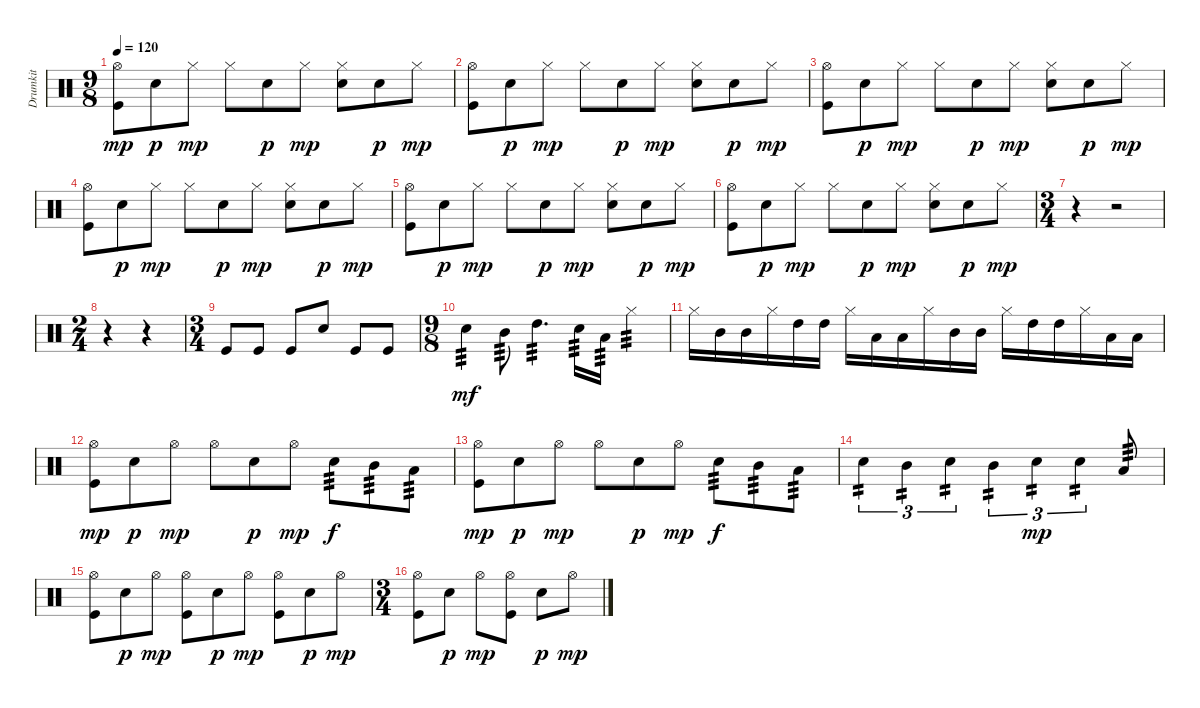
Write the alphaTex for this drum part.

\track ("Drumkit" "Drumkit") {instrument percussion}
\staff {score}
\articulation defaults
\ts (9 8)
\tempo 120
\clef neutral
\ks c
("Hi-Hat (open)" "Kick (hit)").8{dy mp} "Snare (hit) 2".8{dy p} "Hi-Hat (closed)".8{dy mp} "Hi-Hat (closed)".8 "Snare (hit) 2".8{dy p} "Hi-Hat (closed)".8{dy mp} ("Hi-Hat (closed)" "Snare (hit) 2").8 "Snare (hit) 2".8{dy p} "Hi-Hat (closed)".8{dy mp} |
("Hi-Hat (open)" "Kick (hit)").8 "Snare (hit) 2".8{dy p} "Hi-Hat (closed)".8{dy mp} "Hi-Hat (closed)".8 "Snare (hit) 2".8{dy p} "Hi-Hat (closed)".8{dy mp} ("Hi-Hat (closed)" "Snare (hit) 2").8 "Snare (hit) 2".8{dy p} "Hi-Hat (closed)".8{dy mp} |
("Hi-Hat (open)" "Kick (hit)").8 "Snare (hit) 2".8{dy p} "Hi-Hat (closed)".8{dy mp} "Hi-Hat (closed)".8 "Snare (hit) 2".8{dy p} "Hi-Hat (closed)".8{dy mp} ("Hi-Hat (closed)" "Snare (hit) 2").8 "Snare (hit) 2".8{dy p} "Hi-Hat (closed)".8{dy mp} |
("Hi-Hat (open)" "Kick (hit)").8 "Snare (hit) 2".8{dy p} "Hi-Hat (closed)".8{dy mp} "Hi-Hat (closed)".8 "Snare (hit) 2".8{dy p} "Hi-Hat (closed)".8{dy mp} ("Hi-Hat (closed)" "Snare (hit) 2").8 "Snare (hit) 2".8{dy p} "Hi-Hat (closed)".8{dy mp} |
("Hi-Hat (open)" "Kick (hit)").8 "Snare (hit) 2".8{dy p} "Hi-Hat (closed)".8{dy mp} "Hi-Hat (closed)".8 "Snare (hit) 2".8{dy p} "Hi-Hat (closed)".8{dy mp} ("Hi-Hat (closed)" "Snare (hit) 2").8 "Snare (hit) 2".8{dy p} "Hi-Hat (closed)".8{dy mp} |
("Hi-Hat (open)" "Kick (hit)").8 "Snare (hit) 2".8{dy p} "Hi-Hat (closed)".8{dy mp} "Hi-Hat (closed)".8 "Snare (hit) 2".8{dy p} "Hi-Hat (closed)".8{dy mp} ("Hi-Hat (closed)" "Snare (hit) 2").8 "Snare (hit) 2".8{dy p} "Hi-Hat (closed)".8{dy mp} |
\ts (3 4)
r.4 r.2 |
\ts (2 4)
r.4 r.4 |
\ts (3 4)
"Kick (hit)".8 "Kick (hit)".8 "Kick (hit)".8 "Snare (hit) 2".8 "Kick (hit)".8 "Kick (hit)".8 |
\ts (9 8)
"Snare (hit) 2".4{tp 3 dy mf} "Mid Tom (hit)".8{tp 3} "High Tom (hit)".4{d tp 3} "Snare (hit) 2".16{tp 3} "Low Tom (hit)".16{tp 3} "Hi-Hat (closed)".4{tp 3} |
"Hi-Hat (closed)".16 "Mid Tom (hit)".16 "Mid Tom (hit)".16 "Hi-Hat (closed)".16 "High Tom (hit)".16 "High Tom (hit)".16 "Hi-Hat (closed)".16 "Low Tom (hit)".16 "Low Tom (hit)".16 "Hi-Hat (closed)".16 "Mid Tom (hit)".16 "Mid Tom (hit)".16 "Hi-Hat (closed)".16 "High Tom (hit)".16 "High Tom (hit)".16 "Hi-Hat (closed)".16 "Low Tom (hit)".16 "Low Tom (hit)".16 |
("Hi-Hat (open)" "Kick (hit)").8{dy mp} "Snare (hit) 2".8{dy p} "Hi-Hat (open)".8{dy mp} "Hi-Hat (open)".8 "Snare (hit) 2".8{dy p} "Hi-Hat (open)".8{dy mp} "Snare (hit) 2".8{tp 3 dy f} "Mid Tom (hit)".8{tp 3} "Low Tom (hit)".8{tp 3} |
("Hi-Hat (open)" "Kick (hit)").8{dy mp} "Snare (hit) 2".8{dy p} "Hi-Hat (open)".8{dy mp} "Hi-Hat (open)".8 "Snare (hit) 2".8{dy p} "Hi-Hat (open)".8{dy mp} "Snare (hit) 2".8{tp 3 dy f} "Mid Tom (hit)".8{tp 3} "Low Tom (hit)".8{tp 3} |
"Snare (hit) 2".4{tu (3 2) tp 2} "Mid Tom (hit)".4{tu (3 2) tp 2} "Snare (hit) 2".4{tu (3 2) tp 2} "Mid Tom (hit)".4{tu (3 2) tp 2} "Snare (hit) 2".4{tu (3 2) tp 2 dy mp} "Snare (hit) 2".4{tu (3 2) tp 2} "Low Tom (hit)".8{tp 3} |
("Hi-Hat (open)" "Kick (hit)").8 "Snare (hit) 2".8{dy p} "Hi-Hat (open)".8{dy mp} ("Hi-Hat (open)" "Kick (hit)").8 "Snare (hit) 2".8{dy p} "Hi-Hat (open)".8{dy mp} ("Hi-Hat (open)" "Kick (hit)").8 "Snare (hit) 2".8{dy p} "Hi-Hat (open)".8{dy mp} |
\ts (3 4)
("Hi-Hat (open)" "Kick (hit)").8 "Snare (hit) 2".8{dy p} "Hi-Hat (open)".8{dy mp} ("Hi-Hat (open)" "Kick (hit)").8 "Snare (hit) 2".8{dy p} "Hi-Hat (open)".8{dy mp}
